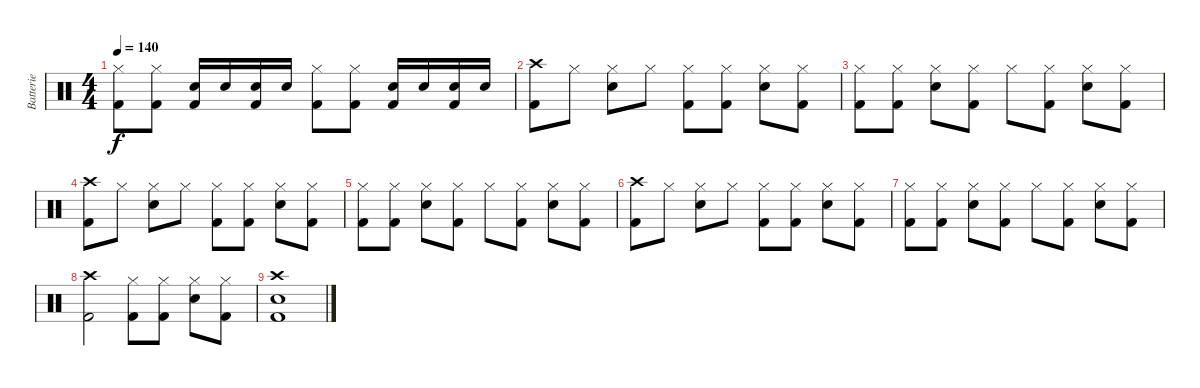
\track ("Batterie" "Batterie") {instrument percussion}
\staff {score}
\articulation defaults
\ts (4 4)
\tempo 140
\clef neutral
\ks c
("Hi-Hat (closed)" "Kick (hit) 2").8{dy f} ("Hi-Hat (closed)" "Kick (hit) 2").8 ("Snare (hit) 2" "Kick (hit) 2").16 "Snare (hit) 2".16 ("Snare (hit) 2" "Kick (hit) 2").16 "Snare (hit) 2".16 ("Hi-Hat (closed)" "Kick (hit) 2").8 ("Hi-Hat (closed)" "Kick (hit) 2").8 ("Snare (hit) 2" "Kick (hit) 2").16 "Snare (hit) 2".16 ("Snare (hit) 2" "Kick (hit) 2").16 "Snare (hit) 2".16 |
("Crash high (hit)" "Kick (hit) 2").8 "Hi-Hat (closed)".8 ("Hi-Hat (closed)" "Snare (hit) 2").8 "Hi-Hat (closed)".8 ("Hi-Hat (closed)" "Kick (hit) 2").8 ("Hi-Hat (closed)" "Kick (hit) 2").8 ("Hi-Hat (closed)" "Snare (hit) 2").8 ("Hi-Hat (closed)" "Kick (hit) 2").8 |
("Hi-Hat (closed)" "Kick (hit) 2").8 ("Hi-Hat (closed)" "Kick (hit) 2").8 ("Hi-Hat (closed)" "Snare (hit) 2").8 ("Hi-Hat (closed)" "Kick (hit) 2").8 "Hi-Hat (closed)".8 ("Hi-Hat (closed)" "Kick (hit) 2").8 ("Hi-Hat (closed)" "Snare (hit) 2").8 ("Hi-Hat (closed)" "Kick (hit) 2").8 |
("Crash high (hit)" "Kick (hit) 2").8 "Hi-Hat (closed)".8 ("Hi-Hat (closed)" "Snare (hit) 2").8 "Hi-Hat (closed)".8 ("Hi-Hat (closed)" "Kick (hit) 2").8 ("Hi-Hat (closed)" "Kick (hit) 2").8 ("Hi-Hat (closed)" "Snare (hit) 2").8 ("Hi-Hat (closed)" "Kick (hit) 2").8 |
("Hi-Hat (closed)" "Kick (hit) 2").8 ("Hi-Hat (closed)" "Kick (hit) 2").8 ("Hi-Hat (closed)" "Snare (hit) 2").8 ("Hi-Hat (closed)" "Kick (hit) 2").8 "Hi-Hat (closed)".8 ("Hi-Hat (closed)" "Kick (hit) 2").8 ("Hi-Hat (closed)" "Snare (hit) 2").8 ("Hi-Hat (closed)" "Kick (hit) 2").8 |
("Crash high (hit)" "Kick (hit) 2").8 "Hi-Hat (closed)".8 ("Hi-Hat (closed)" "Snare (hit) 2").8 "Hi-Hat (closed)".8 ("Hi-Hat (closed)" "Kick (hit) 2").8 ("Hi-Hat (closed)" "Kick (hit) 2").8 ("Hi-Hat (closed)" "Snare (hit) 2").8 ("Hi-Hat (closed)" "Kick (hit) 2").8 |
("Hi-Hat (closed)" "Kick (hit) 2").8 ("Hi-Hat (closed)" "Kick (hit) 2").8 ("Hi-Hat (closed)" "Snare (hit) 2").8 ("Hi-Hat (closed)" "Kick (hit) 2").8 "Hi-Hat (closed)".8 ("Hi-Hat (closed)" "Kick (hit) 2").8 ("Hi-Hat (closed)" "Snare (hit) 2").8 ("Hi-Hat (closed)" "Kick (hit) 2").8 |
("Crash high (hit)" "Kick (hit) 2").2 ("Hi-Hat (closed)" "Kick (hit) 2").8 ("Hi-Hat (closed)" "Kick (hit) 2").8 ("Hi-Hat (closed)" "Snare (hit) 2").8 ("Hi-Hat (closed)" "Kick (hit) 2").8 |
("Crash high (hit)" "Snare (hit) 2" "Kick (hit) 2").1
